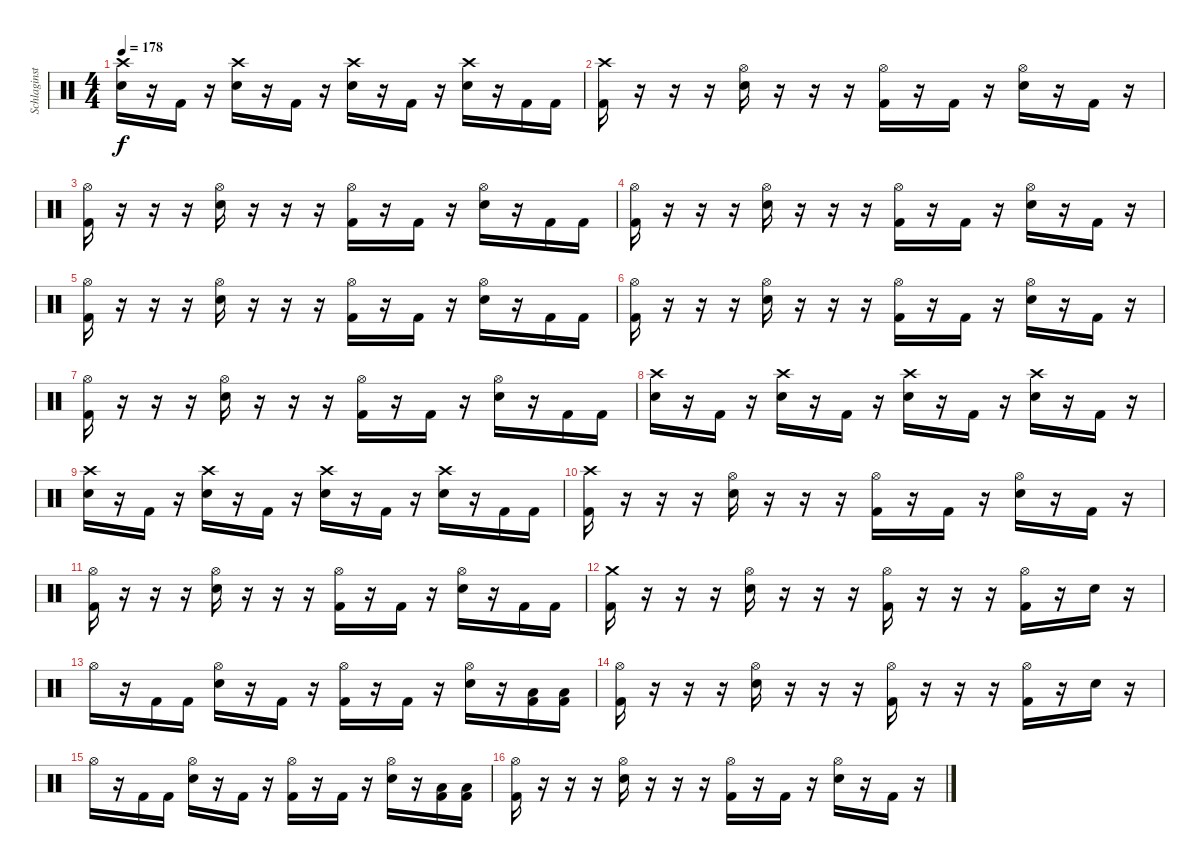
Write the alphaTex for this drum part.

\track ("Schlaginstrumente - Auswahl" "Schlaginst") {instrument percussion}
\staff {score}
\articulation defaults
\ts (4 4)
\tempo 178
\clef neutral
\ks c
("Crash high (hit)" "Snare (hit) 2").16{dy f} r.16 "Kick (hit) 2".16 r.16 ("Crash high (hit)" "Snare (hit) 2").16 r.16 "Kick (hit) 2".16 r.16 ("Crash high (hit)" "Snare (hit) 2").16 r.16 "Kick (hit) 2".16 r.16 ("Crash high (hit)" "Snare (hit) 2").16 r.16 "Kick (hit) 2".16 "Kick (hit) 2".16 |
("Crash high (hit)" "Kick (hit) 2").16 r.16 r.16 r.16 ("Hi-Hat (open)" "Snare (hit) 2").16 r.16 r.16 r.16 ("Hi-Hat (open)" "Kick (hit) 2").16 r.16 "Kick (hit) 2".16 r.16 ("Hi-Hat (open)" "Snare (hit) 2").16 r.16 "Kick (hit) 2".16 r.16 |
("Hi-Hat (open)" "Kick (hit) 2").16 r.16 r.16 r.16 ("Hi-Hat (open)" "Snare (hit) 2").16 r.16 r.16 r.16 ("Hi-Hat (open)" "Kick (hit) 2").16 r.16 "Kick (hit) 2".16 r.16 ("Hi-Hat (open)" "Snare (hit) 2").16 r.16 "Kick (hit) 2".16 "Kick (hit) 2".16 |
("Hi-Hat (open)" "Kick (hit) 2").16 r.16 r.16 r.16 ("Hi-Hat (open)" "Snare (hit) 2").16 r.16 r.16 r.16 ("Hi-Hat (open)" "Kick (hit) 2").16 r.16 "Kick (hit) 2".16 r.16 ("Hi-Hat (open)" "Snare (hit) 2").16 r.16 "Kick (hit) 2".16 r.16 |
("Hi-Hat (open)" "Kick (hit) 2").16 r.16 r.16 r.16 ("Hi-Hat (open)" "Snare (hit) 2").16 r.16 r.16 r.16 ("Hi-Hat (open)" "Kick (hit) 2").16 r.16 "Kick (hit) 2".16 r.16 ("Hi-Hat (open)" "Snare (hit) 2").16 r.16 "Kick (hit) 2".16 "Kick (hit) 2".16 |
("Hi-Hat (open)" "Kick (hit) 2").16 r.16 r.16 r.16 ("Hi-Hat (open)" "Snare (hit) 2").16 r.16 r.16 r.16 ("Hi-Hat (open)" "Kick (hit) 2").16 r.16 "Kick (hit) 2".16 r.16 ("Hi-Hat (open)" "Snare (hit) 2").16 r.16 "Kick (hit) 2".16 r.16 |
("Hi-Hat (open)" "Kick (hit) 2").16 r.16 r.16 r.16 ("Hi-Hat (open)" "Snare (hit) 2").16 r.16 r.16 r.16 ("Hi-Hat (open)" "Kick (hit) 2").16 r.16 "Kick (hit) 2".16 r.16 ("Hi-Hat (open)" "Snare (hit) 2").16 r.16 "Kick (hit) 2".16 "Kick (hit) 2".16 |
("Crash high (hit)" "Snare (hit) 2").16 r.16 "Kick (hit) 2".16 r.16 ("Crash high (hit)" "Snare (hit) 2").16 r.16 "Kick (hit) 2".16 r.16 ("Crash high (hit)" "Snare (hit) 2").16 r.16 "Kick (hit) 2".16 r.16 ("Crash high (hit)" "Snare (hit) 2").16 r.16 "Kick (hit) 2".16 r.16 |
("Crash high (hit)" "Snare (hit) 2").16 r.16 "Kick (hit) 2".16 r.16 ("Crash high (hit)" "Snare (hit) 2").16 r.16 "Kick (hit) 2".16 r.16 ("Crash high (hit)" "Snare (hit) 2").16 r.16 "Kick (hit) 2".16 r.16 ("Crash high (hit)" "Snare (hit) 2").16 r.16 "Kick (hit) 2".16 "Kick (hit) 2".16 |
("Crash high (hit)" "Kick (hit) 2").16 r.16 r.16 r.16 ("Hi-Hat (open)" "Snare (hit) 2").16 r.16 r.16 r.16 ("Hi-Hat (open)" "Kick (hit) 2").16 r.16 "Kick (hit) 2".16 r.16 ("Hi-Hat (open)" "Snare (hit) 2").16 r.16 "Kick (hit) 2".16 r.16 |
("Hi-Hat (open)" "Kick (hit) 2").16 r.16 r.16 r.16 ("Hi-Hat (open)" "Snare (hit) 2").16 r.16 r.16 r.16 ("Hi-Hat (open)" "Kick (hit) 2").16 r.16 "Kick (hit) 2".16 r.16 ("Hi-Hat (open)" "Snare (hit) 2").16 r.16 "Kick (hit) 2".16 "Kick (hit) 2".16 |
("Crash medium (hit)" "Kick (hit) 2").16 r.16 r.16 r.16 ("Hi-Hat (open)" "Snare (hit) 2").16 r.16 r.16 r.16 ("Hi-Hat (open)" "Kick (hit) 2").16 r.16 r.16 r.16 ("Hi-Hat (open)" "Kick (hit) 2").16 r.16 "Snare (hit) 2".16 r.16 |
"Hi-Hat (open)".16 r.16 "Kick (hit) 2".16 "Kick (hit) 2".16 ("Hi-Hat (open)" "Snare (hit) 2").16 r.16 "Kick (hit) 2".16 r.16 ("Hi-Hat (open)" "Kick (hit) 2").16 r.16 "Kick (hit) 2".16 r.16 ("Hi-Hat (open)" "Snare (hit) 2").16 r.16 ("Low Tom (hit)" "Kick (hit) 2").16 ("Low Tom (hit)" "Kick (hit) 2").16 |
("Hi-Hat (open)" "Kick (hit) 2").16 r.16 r.16 r.16 ("Hi-Hat (open)" "Snare (hit) 2").16 r.16 r.16 r.16 ("Hi-Hat (open)" "Kick (hit) 2").16 r.16 r.16 r.16 ("Hi-Hat (open)" "Kick (hit) 2").16 r.16 "Snare (hit) 2".16 r.16 |
"Hi-Hat (open)".16 r.16 "Kick (hit) 2".16 "Kick (hit) 2".16 ("Hi-Hat (open)" "Snare (hit) 2").16 r.16 "Kick (hit) 2".16 r.16 ("Hi-Hat (open)" "Kick (hit) 2").16 r.16 "Kick (hit) 2".16 r.16 ("Hi-Hat (open)" "Snare (hit) 2").16 r.16 ("Low Tom (hit)" "Kick (hit) 2").16 ("Low Tom (hit)" "Kick (hit) 2").16 |
("Hi-Hat (open)" "Kick (hit) 2").16 r.16 r.16 r.16 ("Hi-Hat (open)" "Snare (hit) 2").16 r.16 r.16 r.16 ("Hi-Hat (open)" "Kick (hit) 2").16 r.16 "Kick (hit) 2".16 r.16 ("Hi-Hat (open)" "Snare (hit) 2").16 r.16 "Kick (hit) 2".16 r.16
